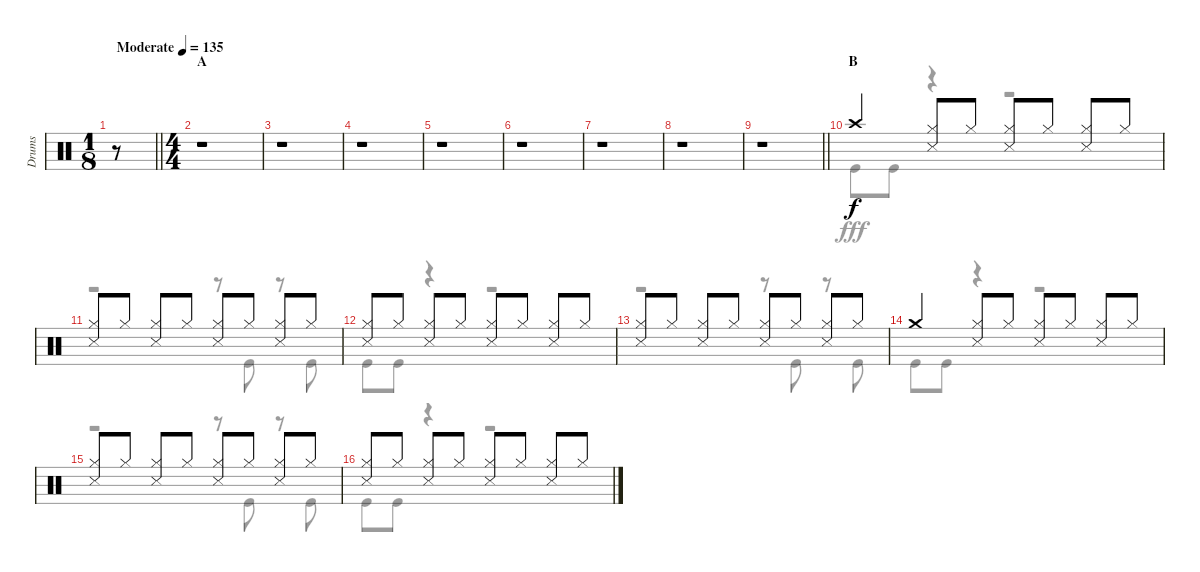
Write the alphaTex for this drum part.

\track ("Drums" "Drums") {instrument percussion}
\staff {score}
\articulation defaults
\voice
\ts (1 8)
\tempo (135 "Moderate")
\clef neutral
\barLineRight lightlight
\ks c
r.8{dy f} |
\ts (4 4)
\section ("" "A")
r.1 |
r.1 |
r.1 |
r.1 |
r.1 |
r.1 |
r.1 |
\barLineRight lightlight
r.1 |
\section ("" "B")
"Crash high (hit)".4 ("Hi-Hat (closed)" "Snare (side stick) 3").8 "Hi-Hat (closed)".8 ("Hi-Hat (closed)" "Snare (side stick) 3").8 "Hi-Hat (closed)".8 ("Hi-Hat (closed)" "Snare (side stick) 3").8 "Hi-Hat (closed)".8 |
("Hi-Hat (closed)" "Snare (side stick) 3").8 "Hi-Hat (closed)".8 ("Hi-Hat (closed)" "Snare (side stick) 3").8 "Hi-Hat (closed)".8 ("Hi-Hat (closed)" "Snare (side stick) 3").8 "Hi-Hat (closed)".8 ("Hi-Hat (closed)" "Snare (side stick) 3").8 "Hi-Hat (closed)".8 |
("Hi-Hat (closed)" "Snare (side stick) 3").8 "Hi-Hat (closed)".8 ("Hi-Hat (closed)" "Snare (side stick) 3").8 "Hi-Hat (closed)".8 ("Hi-Hat (closed)" "Snare (side stick) 3").8 "Hi-Hat (closed)".8 ("Hi-Hat (closed)" "Snare (side stick) 3").8 "Hi-Hat (closed)".8 |
("Hi-Hat (closed)" "Snare (side stick) 3").8 "Hi-Hat (closed)".8 ("Hi-Hat (closed)" "Snare (side stick) 3").8 "Hi-Hat (closed)".8 ("Hi-Hat (closed)" "Snare (side stick) 3").8 "Hi-Hat (closed)".8 ("Hi-Hat (closed)" "Snare (side stick) 3").8 "Hi-Hat (closed)".8 |
"Crash medium (hit)".4 ("Hi-Hat (closed)" "Snare (side stick) 3").8 "Hi-Hat (closed)".8 ("Hi-Hat (closed)" "Snare (side stick) 3").8 "Hi-Hat (closed)".8 ("Hi-Hat (closed)" "Snare (side stick) 3").8 "Hi-Hat (closed)".8 |
("Hi-Hat (closed)" "Snare (side stick) 3").8 "Hi-Hat (closed)".8 ("Hi-Hat (closed)" "Snare (side stick) 3").8 "Hi-Hat (closed)".8 ("Hi-Hat (closed)" "Snare (side stick) 3").8 "Hi-Hat (closed)".8 ("Hi-Hat (closed)" "Snare (side stick) 3").8 "Hi-Hat (closed)".8 |
("Hi-Hat (closed)" "Snare (side stick) 3").8 "Hi-Hat (closed)".8 ("Hi-Hat (closed)" "Snare (side stick) 3").8 "Hi-Hat (closed)".8 ("Hi-Hat (closed)" "Snare (side stick) 3").8 "Hi-Hat (closed)".8 ("Hi-Hat (closed)" "Snare (side stick) 3").8 "Hi-Hat (closed)".8
\voice
\clef neutral
\ottava regular
\simile none
\barLineRight lightlight
\ks c
r.8{dy fff} |
r.1 |
r.1 |
r.1 |
r.1 |
r.1 |
r.1 |
r.1 |
\barLineRight lightlight
r.1 |
"Kick (hit)".8 "Kick (hit)".8 r.4 r.2 |
r.2 r.8 "Kick (hit)".8 r.8 "Kick (hit)".8 |
"Kick (hit)".8 "Kick (hit)".8 r.4 r.2 |
r.2 r.8 "Kick (hit)".8 r.8 "Kick (hit)".8 |
"Kick (hit)".8 "Kick (hit)".8 r.4 r.2 |
r.2 r.8 "Kick (hit)".8 r.8 "Kick (hit)".8 |
"Kick (hit)".8 "Kick (hit)".8 r.4 r.2
